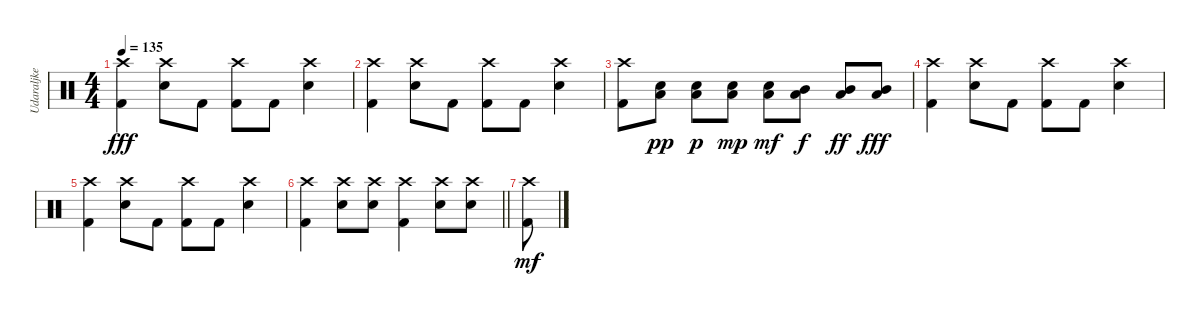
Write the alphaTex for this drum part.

\track ("Udaraljke" "Udaraljke") {instrument percussion}
\staff
\articulation defaults
\ts (4 4)
\tempo 135
\clef neutral
\ks c
("Crash high (hit)" "Kick (hit) 2").4{dy fff} ("Crash high (hit)" "Snare (hit) 2").8 "Kick (hit) 2".8 ("Crash high (hit)" "Kick (hit) 2").8 "Kick (hit) 2".8 ("Crash high (hit)" "Snare (hit) 2").4 |
("Crash high (hit)" "Kick (hit) 2").4 ("Crash high (hit)" "Snare (hit) 2").8 "Kick (hit) 2".8 ("Crash high (hit)" "Kick (hit) 2").8 "Kick (hit) 2".8 ("Crash high (hit)" "Snare (hit) 2").4 |
("Crash high (hit)" "Kick (hit) 2").8 ("Low Tom (hit)" "Snare (hit) 2").8{dy pp} ("Low Tom (hit)" "Snare (hit) 2").8{dy p} ("Low Tom (hit)" "Snare (hit) 2").8{dy mp} ("Low Tom (hit)" "Snare (hit) 2").8{dy mf} ("Low Tom (hit)" "Mid Tom (hit)").8{dy f} ("Low Tom (hit)" "Mid Tom (hit)").8{dy ff} ("Low Tom (hit)" "Mid Tom (hit)").8{dy fff} |
("Crash high (hit)" "Kick (hit) 2").4 ("Crash high (hit)" "Snare (hit) 2").8 "Kick (hit) 2".8 ("Crash high (hit)" "Kick (hit) 2").8 "Kick (hit) 2".8 ("Crash high (hit)" "Snare (hit) 2").4 |
("Crash high (hit)" "Kick (hit) 2").4 ("Crash high (hit)" "Snare (hit) 2").8 "Kick (hit) 2".8 ("Crash high (hit)" "Kick (hit) 2").8 "Kick (hit) 2".8 ("Crash high (hit)" "Snare (hit) 2").4 |
\barLineRight lightlight
("Crash high (hit)" "Kick (hit) 2").4 ("Crash high (hit)" "Snare (hit) 2").8 ("Crash high (hit)" "Snare (hit) 2").8 ("Crash high (hit)" "Kick (hit) 2").4 ("Crash high (hit)" "Snare (hit) 2").8 ("Crash high (hit)" "Snare (hit) 2").8 |
("Crash high (hit)" "Kick (hit) 2").8{dy mf}
